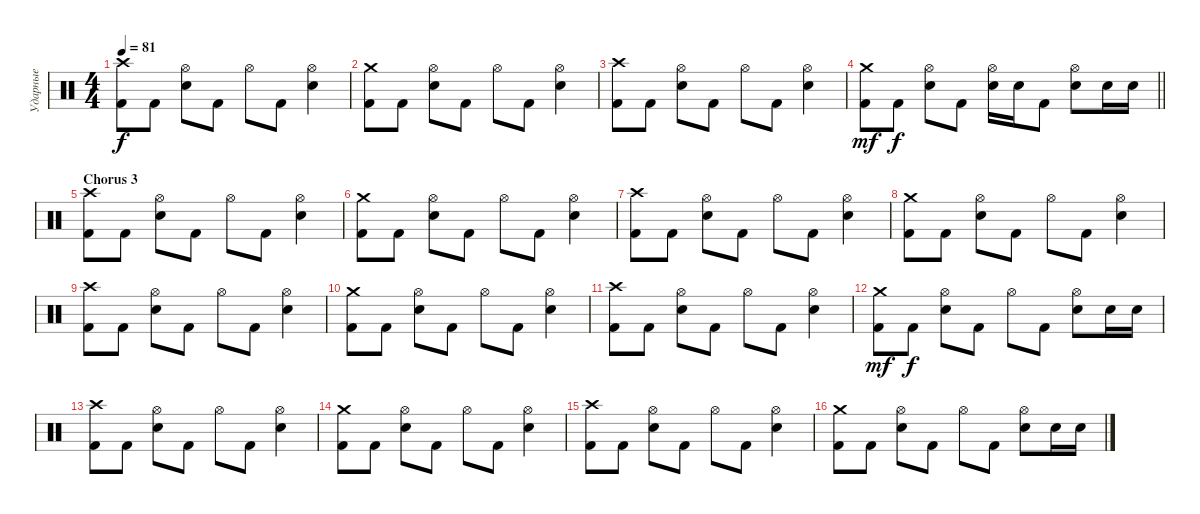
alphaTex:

\track ("Ударные" "Ударные") {instrument percussion}
\staff {score}
\articulation defaults
\ts (4 4)
\tempo 81
\clef neutral
\ks c
("Crash high (hit)" "Kick (hit) 2").8{dy f} "Kick (hit) 2".8 ("Hi-Hat (open)" "Electric Snare (hit)").8 "Kick (hit) 2".8 "Hi-Hat (open)".8 "Kick (hit) 2".8 ("Hi-Hat (open)" "Electric Snare (hit)").4 |
("Crash medium (hit)" "Kick (hit) 2").8 "Kick (hit) 2".8 ("Hi-Hat (open)" "Electric Snare (hit)").8 "Kick (hit) 2".8 "Hi-Hat (open)".8 "Kick (hit) 2".8 ("Hi-Hat (open)" "Electric Snare (hit)").4 |
("Crash high (hit)" "Kick (hit) 2").8 "Kick (hit) 2".8 ("Hi-Hat (open)" "Electric Snare (hit)").8 "Kick (hit) 2".8 "Hi-Hat (open)".8 "Kick (hit) 2".8 ("Hi-Hat (open)" "Electric Snare (hit)").4 |
\barLineRight lightlight
("Crash medium (hit)" "Kick (hit) 2").8{dy mf} "Kick (hit) 2".8{dy f} ("Hi-Hat (open)" "Electric Snare (hit)").8 "Kick (hit) 2".8 ("Hi-Hat (open)" "Electric Snare (hit)").16 "Electric Snare (hit)".16 "Kick (hit) 2".8 ("Hi-Hat (open)" "Electric Snare (hit)").8 "Electric Snare (hit)".16 "Electric Snare (hit)".16 |
\section ("" "Chorus 3")
("Crash high (hit)" "Kick (hit) 2").8 "Kick (hit) 2".8 ("Hi-Hat (open)" "Electric Snare (hit)").8 "Kick (hit) 2".8 "Hi-Hat (open)".8 "Kick (hit) 2".8 ("Hi-Hat (open)" "Electric Snare (hit)").4 |
("Crash medium (hit)" "Kick (hit) 2").8 "Kick (hit) 2".8 ("Hi-Hat (open)" "Electric Snare (hit)").8 "Kick (hit) 2".8 "Hi-Hat (open)".8 "Kick (hit) 2".8 ("Hi-Hat (open)" "Electric Snare (hit)").4 |
("Crash high (hit)" "Kick (hit) 2").8 "Kick (hit) 2".8 ("Hi-Hat (open)" "Electric Snare (hit)").8 "Kick (hit) 2".8 "Hi-Hat (open)".8 "Kick (hit) 2".8 ("Hi-Hat (open)" "Electric Snare (hit)").4 |
("Crash medium (hit)" "Kick (hit) 2").8 "Kick (hit) 2".8 ("Hi-Hat (open)" "Electric Snare (hit)").8 "Kick (hit) 2".8 "Hi-Hat (open)".8 "Kick (hit) 2".8 ("Hi-Hat (open)" "Electric Snare (hit)").4 |
("Crash high (hit)" "Kick (hit) 2").8 "Kick (hit) 2".8 ("Hi-Hat (open)" "Electric Snare (hit)").8 "Kick (hit) 2".8 "Hi-Hat (open)".8 "Kick (hit) 2".8 ("Hi-Hat (open)" "Electric Snare (hit)").4 |
("Crash medium (hit)" "Kick (hit) 2").8 "Kick (hit) 2".8 ("Hi-Hat (open)" "Electric Snare (hit)").8 "Kick (hit) 2".8 "Hi-Hat (open)".8 "Kick (hit) 2".8 ("Hi-Hat (open)" "Electric Snare (hit)").4 |
("Crash high (hit)" "Kick (hit) 2").8 "Kick (hit) 2".8 ("Hi-Hat (open)" "Electric Snare (hit)").8 "Kick (hit) 2".8 "Hi-Hat (open)".8 "Kick (hit) 2".8 ("Hi-Hat (open)" "Electric Snare (hit)").4 |
("Crash medium (hit)" "Kick (hit) 2").8{dy mf} "Kick (hit) 2".8{dy f} ("Hi-Hat (open)" "Electric Snare (hit)").8 "Kick (hit) 2".8 "Hi-Hat (open)".8 "Kick (hit) 2".8 ("Hi-Hat (open)" "Electric Snare (hit)").8 "Electric Snare (hit)".16 "Electric Snare (hit)".16 |
("Crash high (hit)" "Kick (hit) 2").8 "Kick (hit) 2".8 ("Hi-Hat (open)" "Electric Snare (hit)").8 "Kick (hit) 2".8 "Hi-Hat (open)".8 "Kick (hit) 2".8 ("Hi-Hat (open)" "Electric Snare (hit)").4 |
("Crash medium (hit)" "Kick (hit) 2").8 "Kick (hit) 2".8 ("Hi-Hat (open)" "Electric Snare (hit)").8 "Kick (hit) 2".8 "Hi-Hat (open)".8 "Kick (hit) 2".8 ("Hi-Hat (open)" "Electric Snare (hit)").4 |
("Crash high (hit)" "Kick (hit) 2").8 "Kick (hit) 2".8 ("Hi-Hat (open)" "Electric Snare (hit)").8 "Kick (hit) 2".8 "Hi-Hat (open)".8 "Kick (hit) 2".8 ("Hi-Hat (open)" "Electric Snare (hit)").4 |
("Crash medium (hit)" "Kick (hit) 2").8 "Kick (hit) 2".8 ("Hi-Hat (open)" "Electric Snare (hit)").8 "Kick (hit) 2".8 "Hi-Hat (open)".8 "Kick (hit) 2".8 ("Hi-Hat (open)" "Electric Snare (hit)").8 "Electric Snare (hit)".16 "Electric Snare (hit)".16
